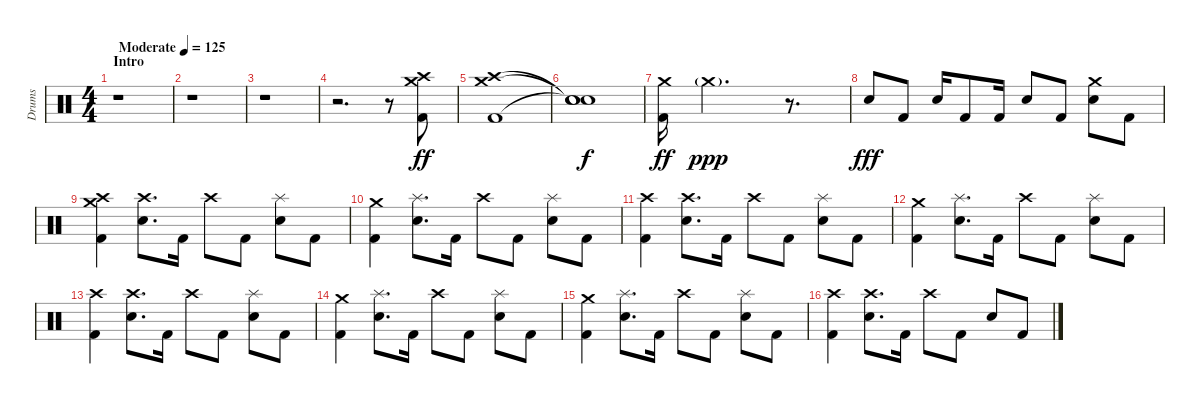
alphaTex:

\track ("Drums" "Drums") {instrument percussion}
\staff {score}
\articulation defaults
\ts (4 4)
\section ("" "Intro")
\tempo (125 "Moderate")
\clef neutral
\ks c
r.1{dy ff} |
r.1 |
r.1 |
r.2{d} r.8 ("Crash medium (hit)" "Crash high (hit)" "Kick (hit) 2").8 |
("Crash medium (hit)" "Crash high (hit)" "Kick (hit) 2").1 |
("Snare (hit)"{t} "Snare (hit)"{t} "Snare (hit)"{t}).1{dy f} |
("Crash medium (hit)" "Kick (hit) 2").16{dy ff} "Crash medium (hit)"{g}.2{d dy ppp} r.8{d} |
"Electric Snare (hit)".8{dy fff} "Kick (hit) 2".8 "Electric Snare (hit)".16 "Kick (hit) 2".8 "Kick (hit) 2".16 "Electric Snare (hit)".8 "Kick (hit) 2".8 ("Crash medium (hit)" "Electric Snare (hit)").8 "Kick (hit) 2".8 |
("Crash medium (hit)" "Crash high (hit)" "Kick (hit) 2").4 ("Crash high (hit)" "Electric Snare (hit)").8{d} "Kick (hit) 2".16 "Crash high (hit)".8 "Kick (hit) 2".8 ("Splash (hit)" "Electric Snare (hit)").8 "Kick (hit) 2".8 |
("Crash medium (hit)" "Kick (hit) 2").4 ("Splash (hit)" "Electric Snare (hit)").8{d} "Kick (hit) 2".16 "Crash high (hit)".8 "Kick (hit) 2".8 ("Splash (hit)" "Electric Snare (hit)").8 "Kick (hit) 2".8 |
("Crash high (hit)" "Kick (hit) 2").4 ("Crash high (hit)" "Electric Snare (hit)").8{d} "Kick (hit) 2".16 "Crash high (hit)".8 "Kick (hit) 2".8 ("Splash (hit)" "Electric Snare (hit)").8 "Kick (hit) 2".8 |
("Crash medium (hit)" "Kick (hit) 2").4 ("Splash (hit)" "Electric Snare (hit)").8{d} "Kick (hit) 2".16 "Crash high (hit)".8 "Kick (hit) 2".8 ("Splash (hit)" "Electric Snare (hit)").8 "Kick (hit) 2".8 |
("Crash high (hit)" "Kick (hit) 2").4 ("Crash high (hit)" "Electric Snare (hit)").8{d} "Kick (hit) 2".16 "Crash high (hit)".8 "Kick (hit) 2".8 ("Splash (hit)" "Electric Snare (hit)").8 "Kick (hit) 2".8 |
("Crash medium (hit)" "Kick (hit) 2").4 ("Splash (hit)" "Electric Snare (hit)").8{d} "Kick (hit) 2".16 "Crash high (hit)".8 "Kick (hit) 2".8 ("Splash (hit)" "Electric Snare (hit)").8 "Kick (hit) 2".8 |
("Crash medium (hit)" "Kick (hit) 2").4 ("Splash (hit)" "Electric Snare (hit)").8{d} "Kick (hit) 2".16 "Crash high (hit)".8 "Kick (hit) 2".8 ("Splash (hit)" "Electric Snare (hit)").8 "Kick (hit) 2".8 |
("Crash high (hit)" "Kick (hit) 2").4 ("Crash high (hit)" "Electric Snare (hit)").8{d} "Kick (hit) 2".16 "Crash high (hit)".8 "Kick (hit) 2".8 "Electric Snare (hit)".8 "Kick (hit) 2".8
